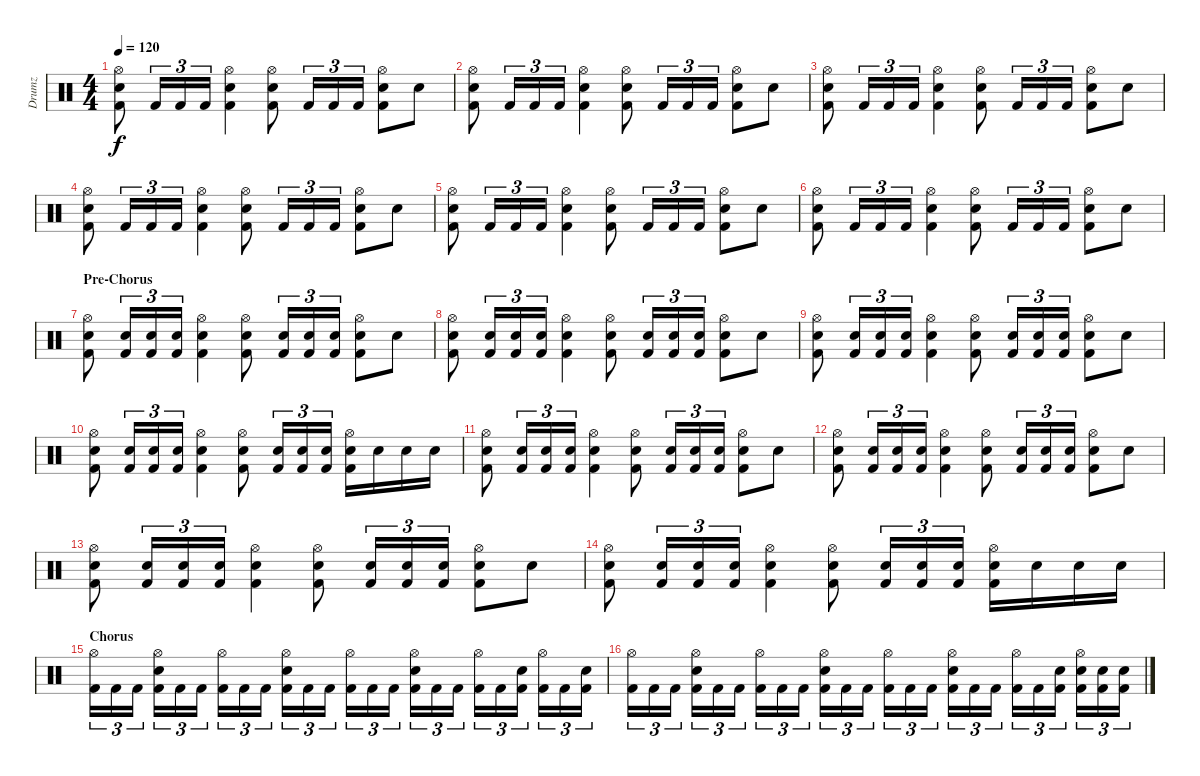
\track ("Drumz" "Drumz") {instrument percussion}
\staff {score}
\articulation defaults
\ts (4 4)
\tempo 120
\clef neutral
\ks c
("Hi-Hat (open)" "Snare (hit) 2" "Kick (hit) 2").8{dy f} "Kick (hit) 2".16{tu (3 2)} "Kick (hit) 2".16{tu (3 2)} "Kick (hit) 2".16{tu (3 2)} ("Hi-Hat (open)" "Snare (hit) 2" "Kick (hit) 2").4 ("Hi-Hat (open)" "Snare (hit) 2" "Kick (hit) 2").8 "Kick (hit) 2".16{tu (3 2)} "Kick (hit) 2".16{tu (3 2)} "Kick (hit) 2".16{tu (3 2)} ("Hi-Hat (open)" "Snare (hit) 2" "Kick (hit) 2").8 "Snare (hit) 2".8 |
("Hi-Hat (open)" "Snare (hit) 2" "Kick (hit) 2").8 "Kick (hit) 2".16{tu (3 2)} "Kick (hit) 2".16{tu (3 2)} "Kick (hit) 2".16{tu (3 2)} ("Hi-Hat (open)" "Snare (hit) 2" "Kick (hit) 2").4 ("Hi-Hat (open)" "Snare (hit) 2" "Kick (hit) 2").8 "Kick (hit) 2".16{tu (3 2)} "Kick (hit) 2".16{tu (3 2)} "Kick (hit) 2".16{tu (3 2)} ("Hi-Hat (open)" "Snare (hit) 2" "Kick (hit) 2").8 "Snare (hit) 2".8 |
("Hi-Hat (open)" "Snare (hit) 2" "Kick (hit) 2").8 "Kick (hit) 2".16{tu (3 2)} "Kick (hit) 2".16{tu (3 2)} "Kick (hit) 2".16{tu (3 2)} ("Hi-Hat (open)" "Snare (hit) 2" "Kick (hit) 2").4 ("Hi-Hat (open)" "Snare (hit) 2" "Kick (hit) 2").8 "Kick (hit) 2".16{tu (3 2)} "Kick (hit) 2".16{tu (3 2)} "Kick (hit) 2".16{tu (3 2)} ("Hi-Hat (open)" "Snare (hit) 2" "Kick (hit) 2").8 "Snare (hit) 2".8 |
("Hi-Hat (open)" "Snare (hit) 2" "Kick (hit) 2").8 "Kick (hit) 2".16{tu (3 2)} "Kick (hit) 2".16{tu (3 2)} "Kick (hit) 2".16{tu (3 2)} ("Hi-Hat (open)" "Snare (hit) 2" "Kick (hit) 2").4 ("Hi-Hat (open)" "Snare (hit) 2" "Kick (hit) 2").8 "Kick (hit) 2".16{tu (3 2)} "Kick (hit) 2".16{tu (3 2)} "Kick (hit) 2".16{tu (3 2)} ("Hi-Hat (open)" "Snare (hit) 2" "Kick (hit) 2").8 "Snare (hit) 2".8 |
("Hi-Hat (open)" "Snare (hit) 2" "Kick (hit) 2").8 "Kick (hit) 2".16{tu (3 2)} "Kick (hit) 2".16{tu (3 2)} "Kick (hit) 2".16{tu (3 2)} ("Hi-Hat (open)" "Snare (hit) 2" "Kick (hit) 2").4 ("Hi-Hat (open)" "Snare (hit) 2" "Kick (hit) 2").8 "Kick (hit) 2".16{tu (3 2)} "Kick (hit) 2".16{tu (3 2)} "Kick (hit) 2".16{tu (3 2)} ("Hi-Hat (open)" "Snare (hit) 2" "Kick (hit) 2").8 "Snare (hit) 2".8 |
("Hi-Hat (open)" "Snare (hit) 2" "Kick (hit) 2").8 "Kick (hit) 2".16{tu (3 2)} "Kick (hit) 2".16{tu (3 2)} "Kick (hit) 2".16{tu (3 2)} ("Hi-Hat (open)" "Snare (hit) 2" "Kick (hit) 2").4 ("Hi-Hat (open)" "Snare (hit) 2" "Kick (hit) 2").8 "Kick (hit) 2".16{tu (3 2)} "Kick (hit) 2".16{tu (3 2)} "Kick (hit) 2".16{tu (3 2)} ("Hi-Hat (open)" "Snare (hit) 2" "Kick (hit) 2").8 "Snare (hit) 2".8 |
\section ("" "Pre-Chorus")
("Hi-Hat (open)" "Snare (hit) 2" "Kick (hit) 2").8 ("Snare (hit) 2" "Kick (hit) 2").16{tu (3 2)} ("Snare (hit) 2" "Kick (hit) 2").16{tu (3 2)} ("Snare (hit) 2" "Kick (hit) 2").16{tu (3 2)} ("Hi-Hat (open)" "Snare (hit) 2" "Kick (hit) 2").4 ("Hi-Hat (open)" "Snare (hit) 2" "Kick (hit) 2").8 ("Snare (hit) 2" "Kick (hit) 2").16{tu (3 2)} ("Snare (hit) 2" "Kick (hit) 2").16{tu (3 2)} ("Snare (hit) 2" "Kick (hit) 2").16{tu (3 2)} ("Hi-Hat (open)" "Snare (hit) 2" "Kick (hit) 2").8 "Snare (hit) 2".8 |
("Hi-Hat (open)" "Snare (hit) 2" "Kick (hit) 2").8 ("Snare (hit) 2" "Kick (hit) 2").16{tu (3 2)} ("Snare (hit) 2" "Kick (hit) 2").16{tu (3 2)} ("Snare (hit) 2" "Kick (hit) 2").16{tu (3 2)} ("Hi-Hat (open)" "Snare (hit) 2" "Kick (hit) 2").4 ("Hi-Hat (open)" "Snare (hit) 2" "Kick (hit) 2").8 ("Snare (hit) 2" "Kick (hit) 2").16{tu (3 2)} ("Snare (hit) 2" "Kick (hit) 2").16{tu (3 2)} ("Snare (hit) 2" "Kick (hit) 2").16{tu (3 2)} ("Hi-Hat (open)" "Snare (hit) 2" "Kick (hit) 2").8 "Snare (hit) 2".8 |
("Hi-Hat (open)" "Snare (hit) 2" "Kick (hit) 2").8 ("Snare (hit) 2" "Kick (hit) 2").16{tu (3 2)} ("Snare (hit) 2" "Kick (hit) 2").16{tu (3 2)} ("Snare (hit) 2" "Kick (hit) 2").16{tu (3 2)} ("Hi-Hat (open)" "Snare (hit) 2" "Kick (hit) 2").4 ("Hi-Hat (open)" "Snare (hit) 2" "Kick (hit) 2").8 ("Snare (hit) 2" "Kick (hit) 2").16{tu (3 2)} ("Snare (hit) 2" "Kick (hit) 2").16{tu (3 2)} ("Snare (hit) 2" "Kick (hit) 2").16{tu (3 2)} ("Hi-Hat (open)" "Snare (hit) 2" "Kick (hit) 2").8 "Snare (hit) 2".8 |
("Hi-Hat (open)" "Snare (hit) 2" "Kick (hit) 2").8 ("Snare (hit) 2" "Kick (hit) 2").16{tu (3 2)} ("Snare (hit) 2" "Kick (hit) 2").16{tu (3 2)} ("Snare (hit) 2" "Kick (hit) 2").16{tu (3 2)} ("Hi-Hat (open)" "Snare (hit) 2" "Kick (hit) 2").4 ("Hi-Hat (open)" "Snare (hit) 2" "Kick (hit) 2").8 ("Snare (hit) 2" "Kick (hit) 2").16{tu (3 2)} ("Snare (hit) 2" "Kick (hit) 2").16{tu (3 2)} ("Snare (hit) 2" "Kick (hit) 2").16{tu (3 2)} ("Hi-Hat (open)" "Snare (hit) 2" "Kick (hit) 2").16 "Snare (hit) 2".16 "Snare (hit) 2".16 "Snare (hit) 2".16 |
("Hi-Hat (open)" "Snare (hit) 2" "Kick (hit) 2").8 ("Snare (hit) 2" "Kick (hit) 2").16{tu (3 2)} ("Snare (hit) 2" "Kick (hit) 2").16{tu (3 2)} ("Snare (hit) 2" "Kick (hit) 2").16{tu (3 2)} ("Hi-Hat (open)" "Snare (hit) 2" "Kick (hit) 2").4 ("Hi-Hat (open)" "Snare (hit) 2" "Kick (hit) 2").8 ("Snare (hit) 2" "Kick (hit) 2").16{tu (3 2)} ("Snare (hit) 2" "Kick (hit) 2").16{tu (3 2)} ("Snare (hit) 2" "Kick (hit) 2").16{tu (3 2)} ("Hi-Hat (open)" "Snare (hit) 2" "Kick (hit) 2").8 "Snare (hit) 2".8 |
("Hi-Hat (open)" "Snare (hit) 2" "Kick (hit) 2").8 ("Snare (hit) 2" "Kick (hit) 2").16{tu (3 2)} ("Snare (hit) 2" "Kick (hit) 2").16{tu (3 2)} ("Snare (hit) 2" "Kick (hit) 2").16{tu (3 2)} ("Hi-Hat (open)" "Snare (hit) 2" "Kick (hit) 2").4 ("Hi-Hat (open)" "Snare (hit) 2" "Kick (hit) 2").8 ("Snare (hit) 2" "Kick (hit) 2").16{tu (3 2)} ("Snare (hit) 2" "Kick (hit) 2").16{tu (3 2)} ("Snare (hit) 2" "Kick (hit) 2").16{tu (3 2)} ("Hi-Hat (open)" "Snare (hit) 2" "Kick (hit) 2").8 "Snare (hit) 2".8 |
("Hi-Hat (open)" "Snare (hit) 2" "Kick (hit) 2").8 ("Snare (hit) 2" "Kick (hit) 2").16{tu (3 2)} ("Snare (hit) 2" "Kick (hit) 2").16{tu (3 2)} ("Snare (hit) 2" "Kick (hit) 2").16{tu (3 2)} ("Hi-Hat (open)" "Snare (hit) 2" "Kick (hit) 2").4 ("Hi-Hat (open)" "Snare (hit) 2" "Kick (hit) 2").8 ("Snare (hit) 2" "Kick (hit) 2").16{tu (3 2)} ("Snare (hit) 2" "Kick (hit) 2").16{tu (3 2)} ("Snare (hit) 2" "Kick (hit) 2").16{tu (3 2)} ("Hi-Hat (open)" "Snare (hit) 2" "Kick (hit) 2").8 "Snare (hit) 2".8 |
("Hi-Hat (open)" "Snare (hit) 2" "Kick (hit) 2").8 ("Snare (hit) 2" "Kick (hit) 2").16{tu (3 2)} ("Snare (hit) 2" "Kick (hit) 2").16{tu (3 2)} ("Snare (hit) 2" "Kick (hit) 2").16{tu (3 2)} ("Hi-Hat (open)" "Snare (hit) 2" "Kick (hit) 2").4 ("Hi-Hat (open)" "Snare (hit) 2" "Kick (hit) 2").8 ("Snare (hit) 2" "Kick (hit) 2").16{tu (3 2)} ("Snare (hit) 2" "Kick (hit) 2").16{tu (3 2)} ("Snare (hit) 2" "Kick (hit) 2").16{tu (3 2)} ("Hi-Hat (open)" "Snare (hit) 2" "Kick (hit) 2").16 "Snare (hit) 2".16 "Snare (hit) 2".16 "Snare (hit) 2".16 |
\section ("" "Chorus")
("Hi-Hat (open)" "Kick (hit) 2").16{tu (3 2)} "Kick (hit) 2".16{tu (3 2)} "Kick (hit) 2".16{tu (3 2)} ("Hi-Hat (open)" "Snare (hit) 2" "Kick (hit) 2").16{tu (3 2)} "Kick (hit) 2".16{tu (3 2)} "Kick (hit) 2".16{tu (3 2)} ("Hi-Hat (open)" "Kick (hit) 2").16{tu (3 2)} "Kick (hit) 2".16{tu (3 2)} "Kick (hit) 2".16{tu (3 2)} ("Hi-Hat (open)" "Snare (hit) 2" "Kick (hit) 2").16{tu (3 2)} "Kick (hit) 2".16{tu (3 2)} "Kick (hit) 2".16{tu (3 2)} ("Hi-Hat (open)" "Kick (hit) 2").16{tu (3 2)} "Kick (hit) 2".16{tu (3 2)} "Kick (hit) 2".16{tu (3 2)} ("Hi-Hat (open)" "Snare (hit) 2" "Kick (hit) 2").16{tu (3 2)} "Kick (hit) 2".16{tu (3 2)} "Kick (hit) 2".16{tu (3 2)} ("Hi-Hat (open)" "Kick (hit) 2").16{tu (3 2)} "Kick (hit) 2".16{tu (3 2)} ("Snare (hit) 2" "Kick (hit) 2").16{tu (3 2)} ("Hi-Hat (open)" "Kick (hit) 2").16{tu (3 2)} "Kick (hit) 2".16{tu (3 2)} ("Snare (hit) 2" "Kick (hit) 2").16{tu (3 2)} |
("Hi-Hat (open)" "Kick (hit) 2").16{tu (3 2)} "Kick (hit) 2".16{tu (3 2)} "Kick (hit) 2".16{tu (3 2)} ("Hi-Hat (open)" "Snare (hit) 2" "Kick (hit) 2").16{tu (3 2)} "Kick (hit) 2".16{tu (3 2)} "Kick (hit) 2".16{tu (3 2)} ("Hi-Hat (open)" "Kick (hit) 2").16{tu (3 2)} "Kick (hit) 2".16{tu (3 2)} "Kick (hit) 2".16{tu (3 2)} ("Hi-Hat (open)" "Snare (hit) 2" "Kick (hit) 2").16{tu (3 2)} "Kick (hit) 2".16{tu (3 2)} "Kick (hit) 2".16{tu (3 2)} ("Hi-Hat (open)" "Kick (hit) 2").16{tu (3 2)} "Kick (hit) 2".16{tu (3 2)} "Kick (hit) 2".16{tu (3 2)} ("Hi-Hat (open)" "Snare (hit) 2" "Kick (hit) 2").16{tu (3 2)} "Kick (hit) 2".16{tu (3 2)} "Kick (hit) 2".16{tu (3 2)} ("Hi-Hat (open)" "Kick (hit) 2").16{tu (3 2)} "Kick (hit) 2".16{tu (3 2)} ("Snare (hit) 2" "Kick (hit) 2").16{tu (3 2)} ("Hi-Hat (open)" "Snare (hit) 2" "Kick (hit) 2").16{tu (3 2)} ("Snare (hit) 2" "Kick (hit) 2").16{tu (3 2)} ("Snare (hit) 2" "Kick (hit) 2").16{tu (3 2)}
